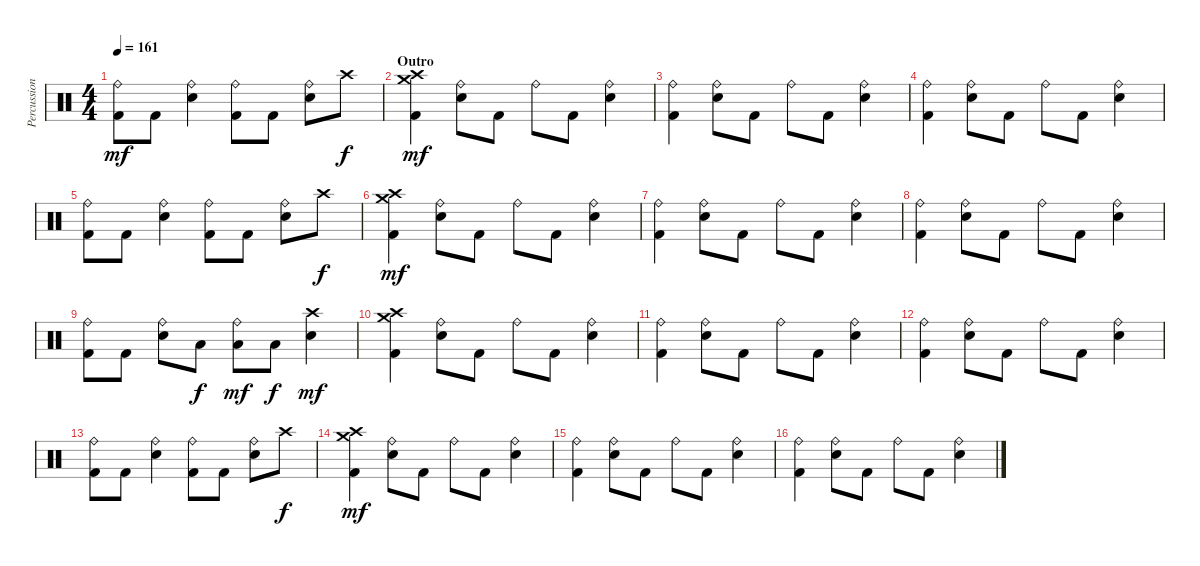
\track ("Percussion" "Percussion") {instrument percussion}
\staff {score}
\articulation defaults
\ts (4 4)
\tempo 161
\clef neutral
\ks c
("Ride (bell)" "Kick (hit) 2").8{dy mf} "Kick (hit) 2".8 ("Ride (bell)" "Electric Snare (hit)").4 ("Ride (bell)" "Kick (hit) 2").8 "Kick (hit) 2".8 ("Ride (bell)" "Electric Snare (hit)").8 "Crash high (hit)".8{dy f} |
\section ("" "Outro")
("Crash medium (hit)" "Crash high (hit)" "Kick (hit) 2").4{dy mf} ("Ride (bell)" "Electric Snare (hit)").8 "Kick (hit) 2".8 "Ride (bell)".8 "Kick (hit) 2".8 ("Ride (bell)" "Electric Snare (hit)").4 |
("Ride (bell)" "Kick (hit) 2").4 ("Ride (bell)" "Electric Snare (hit)").8 "Kick (hit) 2".8 "Ride (bell)".8 "Kick (hit) 2".8 ("Ride (bell)" "Electric Snare (hit)").4 |
("Ride (bell)" "Kick (hit) 2").4 ("Ride (bell)" "Electric Snare (hit)").8 "Kick (hit) 2".8 "Ride (bell)".8 "Kick (hit) 2".8 ("Ride (bell)" "Electric Snare (hit)").4 |
("Ride (bell)" "Kick (hit) 2").8 "Kick (hit) 2".8 ("Ride (bell)" "Electric Snare (hit)").4 ("Ride (bell)" "Kick (hit) 2").8 "Kick (hit) 2".8 ("Ride (bell)" "Electric Snare (hit)").8 "Crash high (hit)".8{dy f} |
("Crash medium (hit)" "Crash high (hit)" "Kick (hit) 2").4{dy mf} ("Ride (bell)" "Electric Snare (hit)").8 "Kick (hit) 2".8 "Ride (bell)".8 "Kick (hit) 2".8 ("Ride (bell)" "Electric Snare (hit)").4 |
("Ride (bell)" "Kick (hit) 2").4 ("Ride (bell)" "Electric Snare (hit)").8 "Kick (hit) 2".8 "Ride (bell)".8 "Kick (hit) 2".8 ("Ride (bell)" "Electric Snare (hit)").4 |
("Ride (bell)" "Kick (hit) 2").4 ("Ride (bell)" "Electric Snare (hit)").8 "Kick (hit) 2".8 "Ride (bell)".8 "Kick (hit) 2".8 ("Ride (bell)" "Electric Snare (hit)").4 |
("Ride (bell)" "Kick (hit) 2").8 "Kick (hit) 2".8 ("Ride (bell)" "Electric Snare (hit)").8 "Low Tom (hit)".8{dy f} ("Ride (bell)" "Low Tom (hit)").8{dy mf} "Low Tom (hit)".8{dy f} ("Crash high (hit)" "Electric Snare (hit)").4{dy mf} |
("Crash medium (hit)" "Crash high (hit)" "Kick (hit) 2").4 ("Ride (bell)" "Electric Snare (hit)").8 "Kick (hit) 2".8 "Ride (bell)".8 "Kick (hit) 2".8 ("Ride (bell)" "Electric Snare (hit)").4 |
("Ride (bell)" "Kick (hit) 2").4 ("Ride (bell)" "Electric Snare (hit)").8 "Kick (hit) 2".8 "Ride (bell)".8 "Kick (hit) 2".8 ("Ride (bell)" "Electric Snare (hit)").4 |
("Ride (bell)" "Kick (hit) 2").4 ("Ride (bell)" "Electric Snare (hit)").8 "Kick (hit) 2".8 "Ride (bell)".8 "Kick (hit) 2".8 ("Ride (bell)" "Electric Snare (hit)").4 |
("Ride (bell)" "Kick (hit) 2").8 "Kick (hit) 2".8 ("Ride (bell)" "Electric Snare (hit)").4 ("Ride (bell)" "Kick (hit) 2").8 "Kick (hit) 2".8 ("Ride (bell)" "Electric Snare (hit)").8 "Crash high (hit)".8{dy f} |
("Crash medium (hit)" "Crash high (hit)" "Kick (hit) 2").4{dy mf} ("Ride (bell)" "Electric Snare (hit)").8 "Kick (hit) 2".8 "Ride (bell)".8 "Kick (hit) 2".8 ("Ride (bell)" "Electric Snare (hit)").4 |
("Ride (bell)" "Kick (hit) 2").4 ("Ride (bell)" "Electric Snare (hit)").8 "Kick (hit) 2".8 "Ride (bell)".8 "Kick (hit) 2".8 ("Ride (bell)" "Electric Snare (hit)").4 |
("Ride (bell)" "Kick (hit) 2").4 ("Ride (bell)" "Electric Snare (hit)").8 "Kick (hit) 2".8 "Ride (bell)".8 "Kick (hit) 2".8 ("Ride (bell)" "Electric Snare (hit)").4
